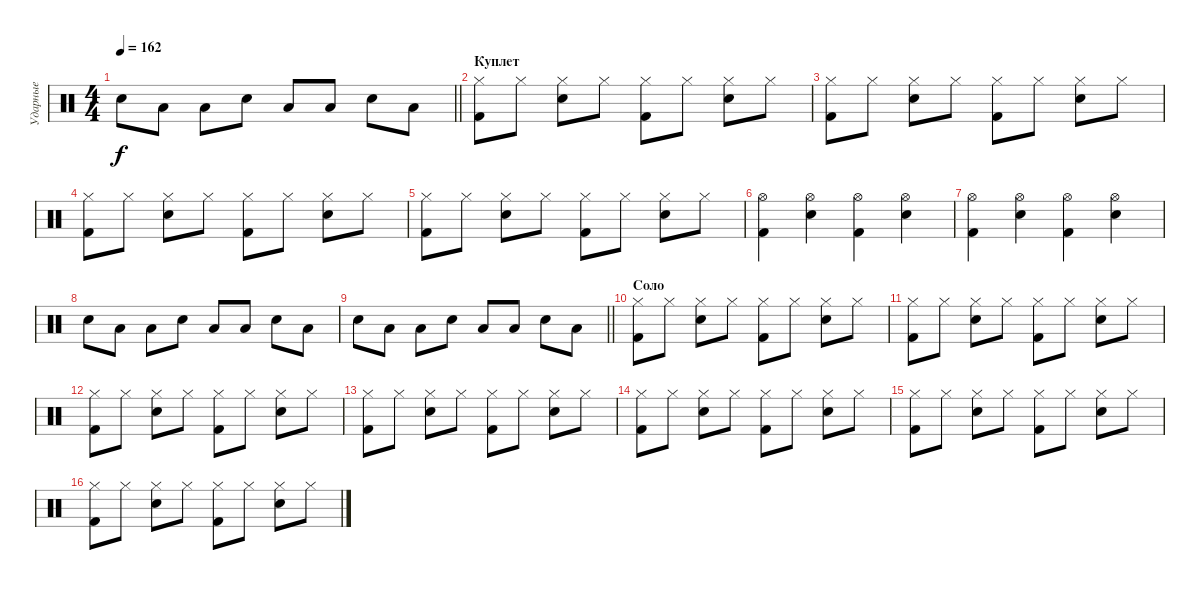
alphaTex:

\track ("Ударные" "Ударные") {instrument percussion}
\staff {score}
\articulation defaults
\ts (4 4)
\tempo 162
\clef neutral
\barLineRight lightlight
\ks c "Snare (hit) 2".8{dy f} "Low Floor Tom (hit)".8 "Low Floor Tom (hit)".8 "Snare (hit) 2".8 "Low Floor Tom (hit)".8 "Low Floor Tom (hit)".8 "Snare (hit) 2".8 "Low Floor Tom (hit)".8
|
\section ("" "Куплет")
("Hi-Hat (closed)" "Kick (hit) 2").8 "Hi-Hat (closed)".8 ("Hi-Hat (closed)" "Snare (hit) 2").8 "Hi-Hat (closed)".8 ("Hi-Hat (closed)" "Kick (hit) 2").8 "Hi-Hat (closed)".8 ("Hi-Hat (closed)" "Snare (hit) 2").8 "Hi-Hat (closed)".8 |
("Hi-Hat (closed)" "Kick (hit) 2").8 "Hi-Hat (closed)".8 ("Hi-Hat (closed)" "Snare (hit) 2").8 "Hi-Hat (closed)".8 ("Hi-Hat (closed)" "Kick (hit) 2").8 "Hi-Hat (closed)".8 ("Hi-Hat (closed)" "Snare (hit) 2").8 "Hi-Hat (closed)".8 |
("Hi-Hat (closed)" "Kick (hit) 2").8 "Hi-Hat (closed)".8 ("Hi-Hat (closed)" "Snare (hit) 2").8 "Hi-Hat (closed)".8 ("Hi-Hat (closed)" "Kick (hit) 2").8 "Hi-Hat (closed)".8 ("Hi-Hat (closed)" "Snare (hit) 2").8 "Hi-Hat (closed)".8 |
("Hi-Hat (closed)" "Kick (hit) 2").8 "Hi-Hat (closed)".8 ("Hi-Hat (closed)" "Snare (hit) 2").8 "Hi-Hat (closed)".8 ("Hi-Hat (closed)" "Kick (hit) 2").8 "Hi-Hat (closed)".8 ("Hi-Hat (closed)" "Snare (hit) 2").8 "Hi-Hat (closed)".8 |
("Hi-Hat (open)" "Kick (hit) 2").4 ("Hi-Hat (open)" "Snare (hit) 2").4 ("Hi-Hat (open)" "Kick (hit) 2").4 ("Hi-Hat (open)" "Snare (hit) 2").4 |
("Hi-Hat (open)" "Kick (hit) 2").4 ("Hi-Hat (open)" "Snare (hit) 2").4 ("Hi-Hat (open)" "Kick (hit) 2").4 ("Hi-Hat (open)" "Snare (hit) 2").4 |
"Snare (hit) 2".8 "Low Floor Tom (hit)".8 "Low Floor Tom (hit)".8 "Snare (hit) 2".8 "Low Floor Tom (hit)".8 "Low Floor Tom (hit)".8 "Snare (hit) 2".8 "Low Floor Tom (hit)".8 |
\barLineRight lightlight "Snare (hit) 2".8 "Low Floor Tom (hit)".8 "Low Floor Tom (hit)".8 "Snare (hit) 2".8 "Low Floor Tom (hit)".8 "Low Floor Tom (hit)".8 "Snare (hit) 2".8 "Low Floor Tom (hit)".8
|
\section ("" "Соло")
("Hi-Hat (closed)" "Kick (hit) 2").8 "Hi-Hat (closed)".8 ("Hi-Hat (closed)" "Snare (hit) 2").8 "Hi-Hat (closed)".8 ("Hi-Hat (closed)" "Kick (hit) 2").8 "Hi-Hat (closed)".8 ("Hi-Hat (closed)" "Snare (hit) 2").8 "Hi-Hat (closed)".8 |
("Hi-Hat (closed)" "Kick (hit) 2").8 "Hi-Hat (closed)".8 ("Hi-Hat (closed)" "Snare (hit) 2").8 "Hi-Hat (closed)".8 ("Hi-Hat (closed)" "Kick (hit) 2").8 "Hi-Hat (closed)".8 ("Hi-Hat (closed)" "Snare (hit) 2").8 "Hi-Hat (closed)".8 |
("Hi-Hat (closed)" "Kick (hit) 2").8 "Hi-Hat (closed)".8 ("Hi-Hat (closed)" "Snare (hit) 2").8 "Hi-Hat (closed)".8 ("Hi-Hat (closed)" "Kick (hit) 2").8 "Hi-Hat (closed)".8 ("Hi-Hat (closed)" "Snare (hit) 2").8 "Hi-Hat (closed)".8 |
("Hi-Hat (closed)" "Kick (hit) 2").8 "Hi-Hat (closed)".8 ("Hi-Hat (closed)" "Snare (hit) 2").8 "Hi-Hat (closed)".8 ("Hi-Hat (closed)" "Kick (hit) 2").8 "Hi-Hat (closed)".8 ("Hi-Hat (closed)" "Snare (hit) 2").8 "Hi-Hat (closed)".8 |
("Hi-Hat (closed)" "Kick (hit) 2").8 "Hi-Hat (closed)".8 ("Hi-Hat (closed)" "Snare (hit) 2").8 "Hi-Hat (closed)".8 ("Hi-Hat (closed)" "Kick (hit) 2").8 "Hi-Hat (closed)".8 ("Hi-Hat (closed)" "Snare (hit) 2").8 "Hi-Hat (closed)".8 |
("Hi-Hat (closed)" "Kick (hit) 2").8 "Hi-Hat (closed)".8 ("Hi-Hat (closed)" "Snare (hit) 2").8 "Hi-Hat (closed)".8 ("Hi-Hat (closed)" "Kick (hit) 2").8 "Hi-Hat (closed)".8 ("Hi-Hat (closed)" "Snare (hit) 2").8 "Hi-Hat (closed)".8 |
("Hi-Hat (closed)" "Kick (hit) 2").8 "Hi-Hat (closed)".8 ("Hi-Hat (closed)" "Snare (hit) 2").8 "Hi-Hat (closed)".8 ("Hi-Hat (closed)" "Kick (hit) 2").8 "Hi-Hat (closed)".8 ("Hi-Hat (closed)" "Snare (hit) 2").8 "Hi-Hat (closed)".8
